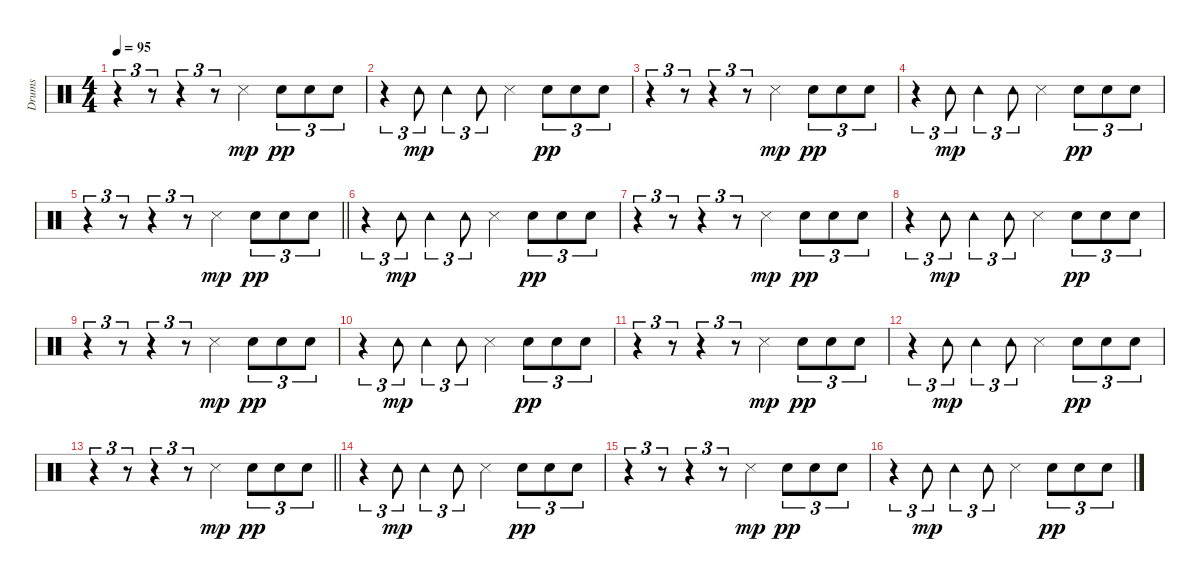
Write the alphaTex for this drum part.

\track ("Drums" "Drums") {instrument percussion}
\staff {score}
\articulation defaults
\ts (4 4)
\tempo 95
\clef neutral
\ks aminor
r.4{tu (3 2) dy pp} r.8{tu (3 2)} r.4{tu (3 2)} r.8{tu (3 2)} "Snare (side stick) 3".4{dy mp} "Snare (hit) 2".8{tu (3 2) dy pp} "Snare (hit) 2".8{tu (3 2)} "Snare (hit) 2".8{tu (3 2)} |
r.4{tu (3 2)} "Tambourine (hit)".8{tu (3 2) dy mp} "Tambourine (hit)".4{tu (3 2)} "Tambourine (hit)".8{tu (3 2)} "Snare (side stick) 3".4 "Snare (hit) 2".8{tu (3 2) dy pp} "Snare (hit) 2".8{tu (3 2)} "Snare (hit) 2".8{tu (3 2)} |
r.4{tu (3 2)} r.8{tu (3 2)} r.4{tu (3 2)} r.8{tu (3 2)} "Snare (side stick) 3".4{dy mp} "Snare (hit) 2".8{tu (3 2) dy pp} "Snare (hit) 2".8{tu (3 2)} "Snare (hit) 2".8{tu (3 2)} |
r.4{tu (3 2)} "Tambourine (hit)".8{tu (3 2) dy mp} "Tambourine (hit)".4{tu (3 2)} "Tambourine (hit)".8{tu (3 2)} "Snare (side stick) 3".4 "Snare (hit) 2".8{tu (3 2) dy pp} "Snare (hit) 2".8{tu (3 2)} "Snare (hit) 2".8{tu (3 2)} |
\barLineRight lightlight
r.4{tu (3 2)} r.8{tu (3 2)} r.4{tu (3 2)} r.8{tu (3 2)} "Snare (side stick) 3".4{dy mp} "Snare (hit) 2".8{tu (3 2) dy pp} "Snare (hit) 2".8{tu (3 2)} "Snare (hit) 2".8{tu (3 2)} |
r.4{tu (3 2)} "Tambourine (hit)".8{tu (3 2) dy mp} "Tambourine (hit)".4{tu (3 2)} "Tambourine (hit)".8{tu (3 2)} "Snare (side stick) 3".4 "Snare (hit) 2".8{tu (3 2) dy pp} "Snare (hit) 2".8{tu (3 2)} "Snare (hit) 2".8{tu (3 2)} |
r.4{tu (3 2)} r.8{tu (3 2)} r.4{tu (3 2)} r.8{tu (3 2)} "Snare (side stick) 3".4{dy mp} "Snare (hit) 2".8{tu (3 2) dy pp} "Snare (hit) 2".8{tu (3 2)} "Snare (hit) 2".8{tu (3 2)} |
r.4{tu (3 2)} "Tambourine (hit)".8{tu (3 2) dy mp} "Tambourine (hit)".4{tu (3 2)} "Tambourine (hit)".8{tu (3 2)} "Snare (side stick) 3".4 "Snare (hit) 2".8{tu (3 2) dy pp} "Snare (hit) 2".8{tu (3 2)} "Snare (hit) 2".8{tu (3 2)} |
r.4{tu (3 2)} r.8{tu (3 2)} r.4{tu (3 2)} r.8{tu (3 2)} "Snare (side stick) 3".4{dy mp} "Snare (hit) 2".8{tu (3 2) dy pp} "Snare (hit) 2".8{tu (3 2)} "Snare (hit) 2".8{tu (3 2)} |
r.4{tu (3 2)} "Tambourine (hit)".8{tu (3 2) dy mp} "Tambourine (hit)".4{tu (3 2)} "Tambourine (hit)".8{tu (3 2)} "Snare (side stick) 3".4 "Snare (hit) 2".8{tu (3 2) dy pp} "Snare (hit) 2".8{tu (3 2)} "Snare (hit) 2".8{tu (3 2)} |
r.4{tu (3 2)} r.8{tu (3 2)} r.4{tu (3 2)} r.8{tu (3 2)} "Snare (side stick) 3".4{dy mp} "Snare (hit) 2".8{tu (3 2) dy pp} "Snare (hit) 2".8{tu (3 2)} "Snare (hit) 2".8{tu (3 2)} |
r.4{tu (3 2)} "Tambourine (hit)".8{tu (3 2) dy mp} "Tambourine (hit)".4{tu (3 2)} "Tambourine (hit)".8{tu (3 2)} "Snare (side stick) 3".4 "Snare (hit) 2".8{tu (3 2) dy pp} "Snare (hit) 2".8{tu (3 2)} "Snare (hit) 2".8{tu (3 2)} |
\barLineRight lightlight
r.4{tu (3 2)} r.8{tu (3 2)} r.4{tu (3 2)} r.8{tu (3 2)} "Snare (side stick) 3".4{dy mp} "Snare (hit) 2".8{tu (3 2) dy pp} "Snare (hit) 2".8{tu (3 2)} "Snare (hit) 2".8{tu (3 2)} |
r.4{tu (3 2)} "Tambourine (hit)".8{tu (3 2) dy mp} "Tambourine (hit)".4{tu (3 2)} "Tambourine (hit)".8{tu (3 2)} "Snare (side stick) 3".4 "Snare (hit) 2".8{tu (3 2) dy pp} "Snare (hit) 2".8{tu (3 2)} "Snare (hit) 2".8{tu (3 2)} |
r.4{tu (3 2)} r.8{tu (3 2)} r.4{tu (3 2)} r.8{tu (3 2)} "Snare (side stick) 3".4{dy mp} "Snare (hit) 2".8{tu (3 2) dy pp} "Snare (hit) 2".8{tu (3 2)} "Snare (hit) 2".8{tu (3 2)} |
r.4{tu (3 2)} "Tambourine (hit)".8{tu (3 2) dy mp} "Tambourine (hit)".4{tu (3 2)} "Tambourine (hit)".8{tu (3 2)} "Snare (side stick) 3".4 "Snare (hit) 2".8{tu (3 2) dy pp} "Snare (hit) 2".8{tu (3 2)} "Snare (hit) 2".8{tu (3 2)}
